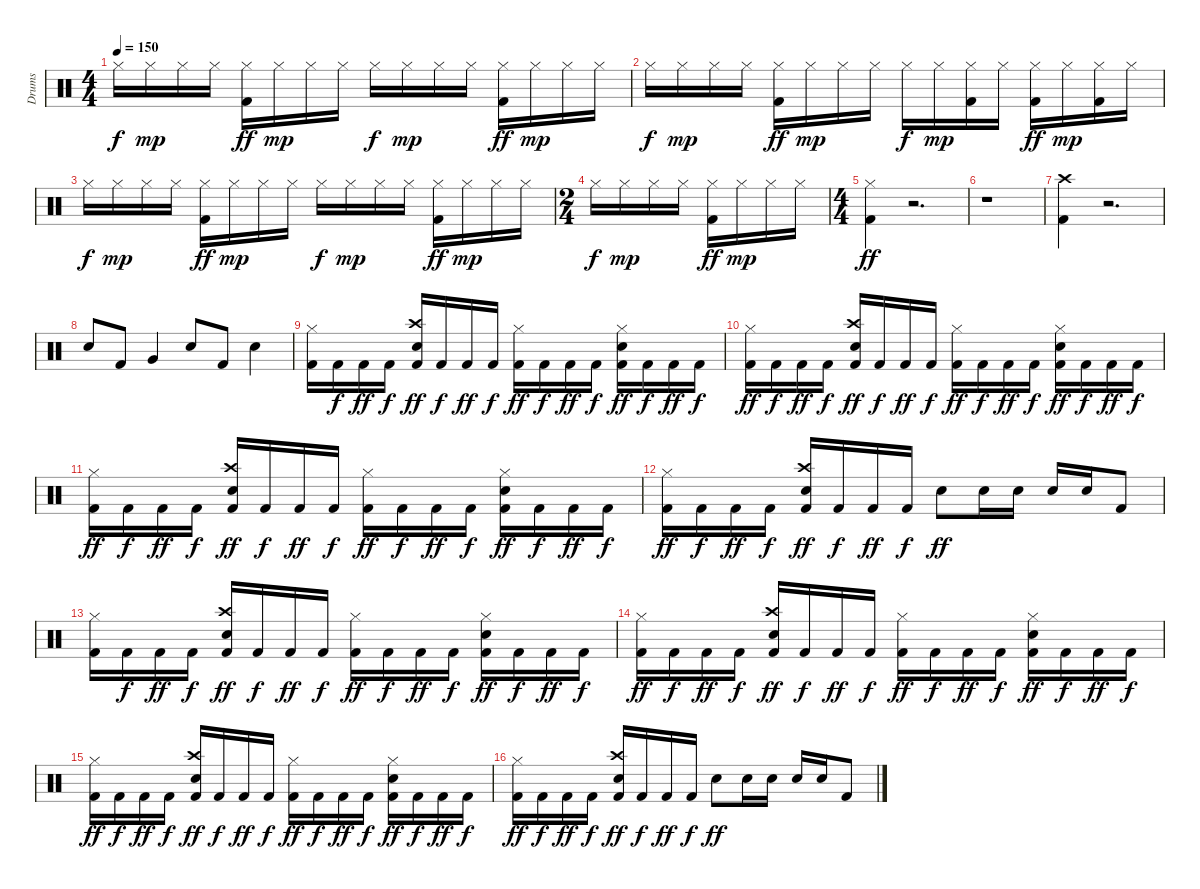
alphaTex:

\track ("Drums" "Drums") {instrument percussion}
\staff {score}
\articulation defaults
\ts (4 4)
\tempo 150
\clef neutral
\ks c "Hi-Hat (closed)".16{dy f} "Hi-Hat (closed)".16{dy mp} "Hi-Hat (closed)".16 "Hi-Hat (closed)".16
("Kick (hit) 2" "Hi-Hat (closed)").16{dy ff} "Hi-Hat (closed)".16{dy mp} "Hi-Hat (closed)".16 "Hi-Hat (closed)".16 "Hi-Hat (closed)".16{dy f} "Hi-Hat (closed)".16{dy mp} "Hi-Hat (closed)".16 "Hi-Hat (closed)".16 ("Kick (hit) 2" "Hi-Hat (closed)").16{dy ff} "Hi-Hat (closed)".16{dy mp} "Hi-Hat (closed)".16 "Hi-Hat (closed)".16 |
"Hi-Hat (closed)".16{dy f} "Hi-Hat (closed)".16{dy mp} "Hi-Hat (closed)".16 "Hi-Hat (closed)".16 ("Kick (hit) 2" "Hi-Hat (closed)").16{dy ff} "Hi-Hat (closed)".16{dy mp} "Hi-Hat (closed)".16 "Hi-Hat (closed)".16 "Hi-Hat (closed)".16{dy f} "Hi-Hat (closed)".16{dy mp} ("Kick (hit) 2" "Hi-Hat (closed)").16 "Hi-Hat (closed)".16 ("Kick (hit) 2" "Hi-Hat (closed)").16{dy ff} "Hi-Hat (closed)".16{dy mp} ("Kick (hit) 2" "Hi-Hat (closed)").16 "Hi-Hat (closed)".16 |
"Hi-Hat (closed)".16{dy f} "Hi-Hat (closed)".16{dy mp} "Hi-Hat (closed)".16 "Hi-Hat (closed)".16 ("Kick (hit) 2" "Hi-Hat (closed)").16{dy ff} "Hi-Hat (closed)".16{dy mp} "Hi-Hat (closed)".16 "Hi-Hat (closed)".16 "Hi-Hat (closed)".16{dy f} "Hi-Hat (closed)".16{dy mp} "Hi-Hat (closed)".16 "Hi-Hat (closed)".16 ("Kick (hit) 2" "Hi-Hat (closed)").16{dy ff} "Hi-Hat (closed)".16{dy mp} "Hi-Hat (closed)".16 "Hi-Hat (closed)".16 |
\ts (2 4)
"Hi-Hat (closed)".16{dy f} "Hi-Hat (closed)".16{dy mp} "Hi-Hat (closed)".16 "Hi-Hat (closed)".16 ("Kick (hit) 2" "Hi-Hat (closed)").16{dy ff} "Hi-Hat (closed)".16{dy mp} "Hi-Hat (closed)".16 "Hi-Hat (closed)".16 |
\ts (4 4)
("Hi-Hat (closed)" "Kick (hit) 2").4{dy ff} r.2{d} |
r.1 |
("Crash high (hit)" "Kick (hit) 2").4 r.2{d} |
"Snare (hit) 2".8 "Kick (hit) 2".8 "Very Low Tom (hit)".4 "Snare (hit) 2".8 "Kick (hit) 2".8 "Snare (hit) 2".4 |
("Hi-Hat (closed)" "Kick (hit) 2").16 "Kick (hit) 2".16{dy f} "Kick (hit) 2".16{dy ff} "Kick (hit) 2".16{dy f} ("Kick (hit) 2" "Crash high (hit)" "Snare (hit) 2").16{dy ff} "Kick (hit) 2".16{dy f} "Kick (hit) 2".16{dy ff} "Kick (hit) 2".16{dy f} ("Hi-Hat (closed)" "Kick (hit) 2").16{dy ff} "Kick (hit) 2".16{dy f} "Kick (hit) 2".16{dy ff} "Kick (hit) 2".16{dy f} ("Kick (hit) 2" "Hi-Hat (closed)" "Snare (hit) 2").16{dy ff} "Kick (hit) 2".16{dy f} "Kick (hit) 2".16{dy ff} "Kick (hit) 2".16{dy f} |
("Hi-Hat (closed)" "Kick (hit) 2").16{dy ff} "Kick (hit) 2".16{dy f} "Kick (hit) 2".16{dy ff} "Kick (hit) 2".16{dy f} ("Kick (hit) 2" "Crash high (hit)" "Snare (hit) 2").16{dy ff} "Kick (hit) 2".16{dy f} "Kick (hit) 2".16{dy ff} "Kick (hit) 2".16{dy f} ("Hi-Hat (closed)" "Kick (hit) 2").16{dy ff} "Kick (hit) 2".16{dy f} "Kick (hit) 2".16{dy ff} "Kick (hit) 2".16{dy f} ("Kick (hit) 2" "Hi-Hat (closed)" "Snare (hit) 2").16{dy ff} "Kick (hit) 2".16{dy f} "Kick (hit) 2".16{dy ff} "Kick (hit) 2".16{dy f} |
("Hi-Hat (closed)" "Kick (hit) 2").16{dy ff} "Kick (hit) 2".16{dy f} "Kick (hit) 2".16{dy ff} "Kick (hit) 2".16{dy f} ("Kick (hit) 2" "Crash high (hit)" "Snare (hit) 2").16{dy ff} "Kick (hit) 2".16{dy f} "Kick (hit) 2".16{dy ff} "Kick (hit) 2".16{dy f} ("Hi-Hat (closed)" "Kick (hit) 2").16{dy ff} "Kick (hit) 2".16{dy f} "Kick (hit) 2".16{dy ff} "Kick (hit) 2".16{dy f} ("Kick (hit) 2" "Hi-Hat (closed)" "Snare (hit) 2").16{dy ff} "Kick (hit) 2".16{dy f} "Kick (hit) 2".16{dy ff} "Kick (hit) 2".16{dy f} |
("Hi-Hat (closed)" "Kick (hit) 2").16{dy ff} "Kick (hit) 2".16{dy f} "Kick (hit) 2".16{dy ff} "Kick (hit) 2".16{dy f} ("Kick (hit) 2" "Crash high (hit)" "Snare (hit) 2").16{dy ff} "Kick (hit) 2".16{dy f} "Kick (hit) 2".16{dy ff} "Kick (hit) 2".16{dy f} "Snare (hit) 2".8{dy ff} "Snare (hit) 2".16 "Snare (hit) 2".16 "Snare (hit) 2".16 "Snare (hit) 2".16 "Kick (hit) 2".8 |
("Hi-Hat (closed)" "Kick (hit) 2").16 "Kick (hit) 2".16{dy f} "Kick (hit) 2".16{dy ff} "Kick (hit) 2".16{dy f} ("Kick (hit) 2" "Crash high (hit)" "Snare (hit) 2").16{dy ff} "Kick (hit) 2".16{dy f} "Kick (hit) 2".16{dy ff} "Kick (hit) 2".16{dy f} ("Hi-Hat (closed)" "Kick (hit) 2").16{dy ff} "Kick (hit) 2".16{dy f} "Kick (hit) 2".16{dy ff} "Kick (hit) 2".16{dy f} ("Kick (hit) 2" "Hi-Hat (closed)" "Snare (hit) 2").16{dy ff} "Kick (hit) 2".16{dy f} "Kick (hit) 2".16{dy ff} "Kick (hit) 2".16{dy f} |
("Hi-Hat (closed)" "Kick (hit) 2").16{dy ff} "Kick (hit) 2".16{dy f} "Kick (hit) 2".16{dy ff} "Kick (hit) 2".16{dy f} ("Kick (hit) 2" "Crash high (hit)" "Snare (hit) 2").16{dy ff} "Kick (hit) 2".16{dy f} "Kick (hit) 2".16{dy ff} "Kick (hit) 2".16{dy f} ("Hi-Hat (closed)" "Kick (hit) 2").16{dy ff} "Kick (hit) 2".16{dy f} "Kick (hit) 2".16{dy ff} "Kick (hit) 2".16{dy f} ("Kick (hit) 2" "Hi-Hat (closed)" "Snare (hit) 2").16{dy ff} "Kick (hit) 2".16{dy f} "Kick (hit) 2".16{dy ff} "Kick (hit) 2".16{dy f} |
("Hi-Hat (closed)" "Kick (hit) 2").16{dy ff} "Kick (hit) 2".16{dy f} "Kick (hit) 2".16{dy ff} "Kick (hit) 2".16{dy f} ("Kick (hit) 2" "Crash high (hit)" "Snare (hit) 2").16{dy ff} "Kick (hit) 2".16{dy f} "Kick (hit) 2".16{dy ff} "Kick (hit) 2".16{dy f} ("Hi-Hat (closed)" "Kick (hit) 2").16{dy ff} "Kick (hit) 2".16{dy f} "Kick (hit) 2".16{dy ff} "Kick (hit) 2".16{dy f} ("Kick (hit) 2" "Hi-Hat (closed)" "Snare (hit) 2").16{dy ff} "Kick (hit) 2".16{dy f} "Kick (hit) 2".16{dy ff} "Kick (hit) 2".16{dy f} |
("Hi-Hat (closed)" "Kick (hit) 2").16{dy ff} "Kick (hit) 2".16{dy f} "Kick (hit) 2".16{dy ff} "Kick (hit) 2".16{dy f} ("Kick (hit) 2" "Crash high (hit)" "Snare (hit) 2").16{dy ff} "Kick (hit) 2".16{dy f} "Kick (hit) 2".16{dy ff} "Kick (hit) 2".16{dy f} "Snare (hit) 2".8{dy ff} "Snare (hit) 2".16 "Snare (hit) 2".16 "Snare (hit) 2".16 "Snare (hit) 2".16 "Kick (hit) 2".8
